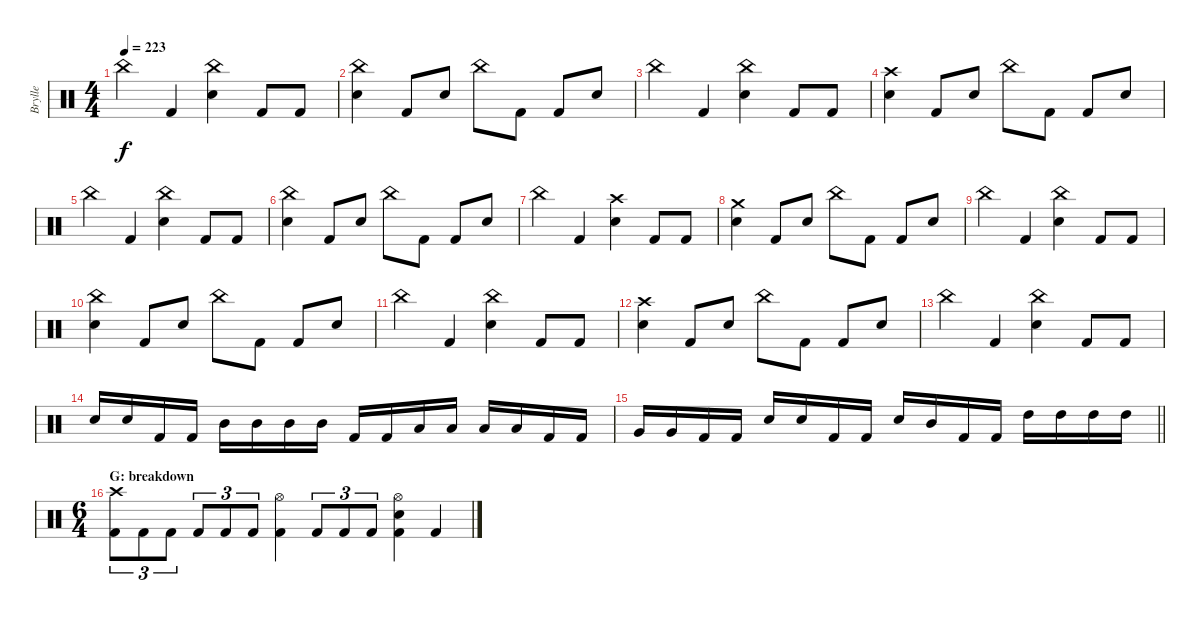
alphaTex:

\track ("Brylle" "Brylle") {instrument percussion}
\staff {score}
\articulation defaults
\ts (4 4)
\tempo 223
\clef neutral
\ks c "China (hit)".4{dy f} "Kick (hit) 2".4
("China (hit)" "Electric Snare (hit)").4 "Kick (hit) 2".8 "Kick (hit) 2".8 |
("China (hit)" "Electric Snare (hit)").4 "Kick (hit) 2".8 "Electric Snare (hit)".8 "China (hit)".8 "Kick (hit) 2".8 "Kick (hit) 2".8 "Electric Snare (hit)".8 |
"China (hit)".4 "Kick (hit) 2".4 ("China (hit)" "Electric Snare (hit)").4 "Kick (hit) 2".8 "Kick (hit) 2".8 |
("Crash high (hit)" "Electric Snare (hit)").4 "Kick (hit) 2".8 "Electric Snare (hit)".8 "China (hit)".8 "Kick (hit) 2".8 "Kick (hit) 2".8 "Electric Snare (hit)".8 |
"China (hit)".4 "Kick (hit) 2".4 ("China (hit)" "Electric Snare (hit)").4 "Kick (hit) 2".8 "Kick (hit) 2".8 |
("China (hit)" "Electric Snare (hit)").4 "Kick (hit) 2".8 "Electric Snare (hit)".8 "China (hit)".8 "Kick (hit) 2".8 "Kick (hit) 2".8 "Electric Snare (hit)".8 |
"China (hit)".4 "Kick (hit) 2".4 ("Crash high (hit)" "Electric Snare (hit)").4 "Kick (hit) 2".8 "Kick (hit) 2".8 |
("Crash medium (hit)" "Electric Snare (hit)").4 "Kick (hit) 2".8 "Electric Snare (hit)".8 "China (hit)".8 "Kick (hit) 2".8 "Kick (hit) 2".8 "Electric Snare (hit)".8 |
"China (hit)".4 "Kick (hit) 2".4 ("China (hit)" "Electric Snare (hit)").4 "Kick (hit) 2".8 "Kick (hit) 2".8 |
("China (hit)" "Electric Snare (hit)").4 "Kick (hit) 2".8 "Electric Snare (hit)".8 "China (hit)".8 "Kick (hit) 2".8 "Kick (hit) 2".8 "Electric Snare (hit)".8 |
"China (hit)".4 "Kick (hit) 2".4 ("China (hit)" "Electric Snare (hit)").4 "Kick (hit) 2".8 "Kick (hit) 2".8 |
("Crash high (hit)" "Electric Snare (hit)").4 "Kick (hit) 2".8 "Electric Snare (hit)".8 "China (hit)".8 "Kick (hit) 2".8 "Kick (hit) 2".8 "Electric Snare (hit)".8 |
"China (hit)".4 "Kick (hit) 2".4 ("China (hit)" "Electric Snare (hit)").4 "Kick (hit) 2".8 "Kick (hit) 2".8 |
"Electric Snare (hit)".16 "Electric Snare (hit)".16 "Kick (hit) 2".16 "Kick (hit) 2".16 "Mid Tom (hit)".16 "Mid Tom (hit)".16 "Mid Tom (hit)".16 "Mid Tom (hit)".16 "Kick (hit) 2".16 "Kick (hit) 2".16 "Low Tom (hit)".16 "Low Tom (hit)".16 "Low Tom (hit)".16 "Low Tom (hit)".16 "Kick (hit) 2".16 "Kick (hit) 2".16 |
\barLineRight lightlight "Very Low Tom (hit)".16 "Very Low Tom (hit)".16 "Kick (hit) 2".16 "Kick (hit) 2".16 "Electric Snare (hit)".16 "Electric Snare (hit)".16 "Kick (hit) 2".16 "Kick (hit) 2".16 "Electric Snare (hit)".16 "Mid Tom (hit)".16 "Kick (hit) 2".16 "Kick (hit) 2".16 "High Tom (hit)".16 "High Tom (hit)".16 "High Tom (hit)".16 "High Tom (hit)".16
|
\ts (6 4)
\section ("" "G: breakdown")
("Crash high (hit)" "Kick (hit) 2").8{tu (3 2)} "Kick (hit) 2".8{tu (3 2)} "Kick (hit) 2".8{tu (3 2)} "Kick (hit) 2".8{tu (3 2)} "Kick (hit) 2".8{tu (3 2)} "Kick (hit) 2".8{tu (3 2)} ("Hi-Hat (open)" "Kick (hit) 2").4 "Kick (hit) 2".8{tu (3 2)} "Kick (hit) 2".8{tu (3 2)} "Kick (hit) 2".8{tu (3 2)} ("Hi-Hat (open)" "Electric Snare (hit)" "Kick (hit) 2").4 "Kick (hit) 2".4
